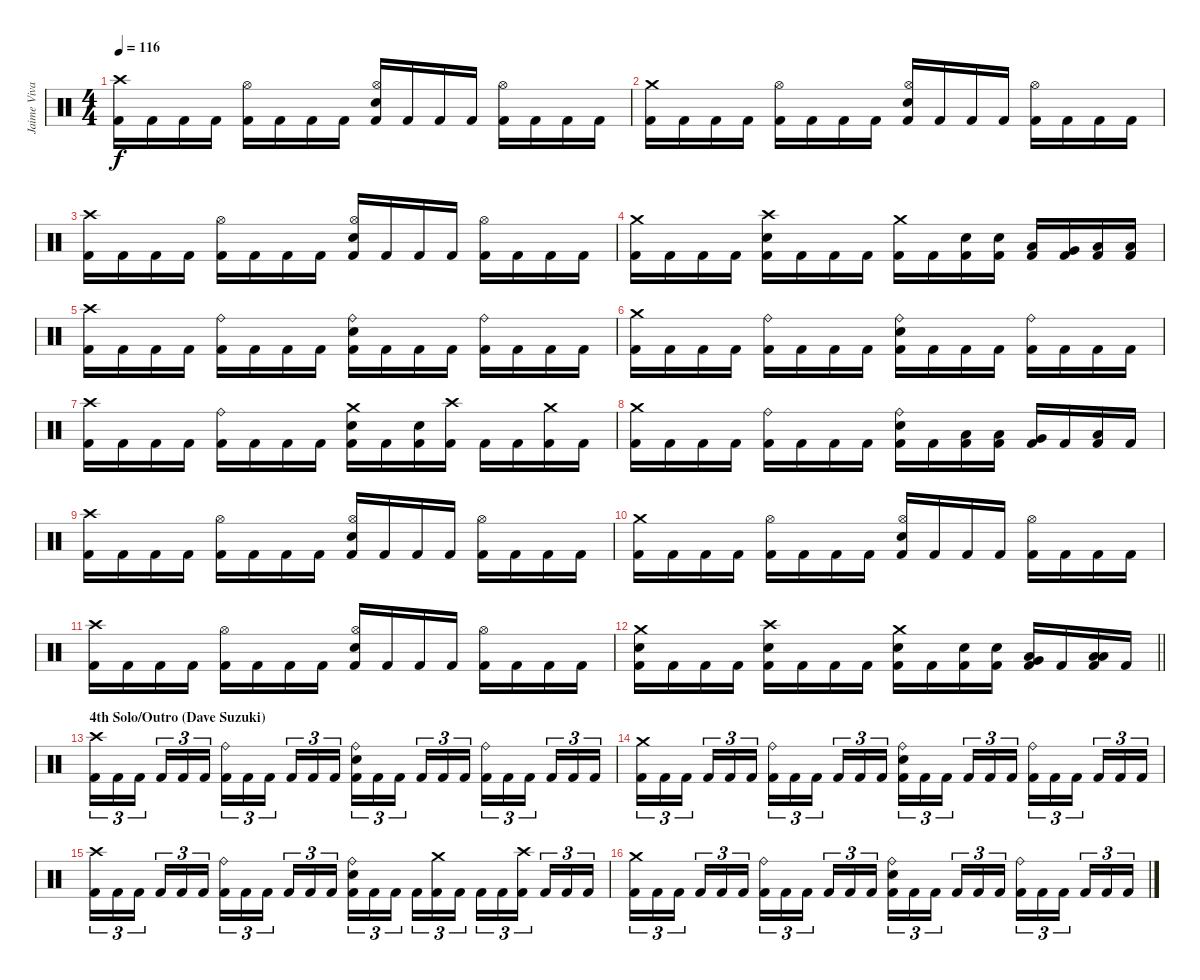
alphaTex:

\track ("Jaime Vivar" "Jaime Viva") {instrument percussion}
\staff {score}
\articulation defaults
\ts (4 4)
\tempo 116
\clef neutral
\ks c
("Crash high (hit)" "Kick (hit) 2").16{dy f} "Kick (hit) 2".16 "Kick (hit) 2".16 "Kick (hit) 2".16 ("Hi-Hat (open)" "Kick (hit) 2").16 "Kick (hit) 2".16 "Kick (hit) 2".16 "Kick (hit) 2".16 ("Hi-Hat (open)" "Snare (hit) 2" "Kick (hit) 2").16 "Kick (hit) 2".16 "Kick (hit) 2".16 "Kick (hit) 2".16 ("Hi-Hat (open)" "Kick (hit) 2").16 "Kick (hit) 2".16 "Kick (hit) 2".16 "Kick (hit) 2".16 |
("Crash medium (hit)" "Kick (hit) 2").16 "Kick (hit) 2".16 "Kick (hit) 2".16 "Kick (hit) 2".16 ("Hi-Hat (open)" "Kick (hit) 2").16 "Kick (hit) 2".16 "Kick (hit) 2".16 "Kick (hit) 2".16 ("Hi-Hat (open)" "Snare (hit) 2" "Kick (hit) 2").16 "Kick (hit) 2".16 "Kick (hit) 2".16 "Kick (hit) 2".16 ("Hi-Hat (open)" "Kick (hit) 2").16 "Kick (hit) 2".16 "Kick (hit) 2".16 "Kick (hit) 2".16 |
("Crash high (hit)" "Kick (hit) 2").16 "Kick (hit) 2".16 "Kick (hit) 2".16 "Kick (hit) 2".16 ("Hi-Hat (open)" "Kick (hit) 2").16 "Kick (hit) 2".16 "Kick (hit) 2".16 "Kick (hit) 2".16 ("Hi-Hat (open)" "Snare (hit) 2" "Kick (hit) 2").16 "Kick (hit) 2".16 "Kick (hit) 2".16 "Kick (hit) 2".16 ("Hi-Hat (open)" "Kick (hit) 2").16 "Kick (hit) 2".16 "Kick (hit) 2".16 "Kick (hit) 2".16 |
("Crash medium (hit)" "Kick (hit) 2").16 "Kick (hit) 2".16 "Kick (hit) 2".16 "Kick (hit) 2".16 ("Crash high (hit)" "Snare (hit) 2" "Kick (hit) 2").16 "Kick (hit) 2".16 "Kick (hit) 2".16 "Kick (hit) 2".16 ("Crash medium (hit)" "Kick (hit) 2").16 "Kick (hit) 2".16 ("Snare (hit) 2" "Kick (hit) 2").16 ("Snare (hit) 2" "Kick (hit) 2").16 ("Low Tom (hit)" "Kick (hit) 2").16 ("Very Low Tom (hit)" "Kick (hit) 2").16 ("Low Floor Tom (hit)" "Kick (hit) 2").16 ("Low Floor Tom (hit)" "Kick (hit) 2").16 |
("Crash high (hit)" "Kick (hit) 2").16 "Kick (hit) 2".16 "Kick (hit) 2".16 "Kick (hit) 2".16 ("Ride (bell)" "Kick (hit) 2").16 "Kick (hit) 2".16 "Kick (hit) 2".16 "Kick (hit) 2".16 ("Ride (bell)" "Snare (hit) 2" "Kick (hit) 2").16 "Kick (hit) 2".16 "Kick (hit) 2".16 "Kick (hit) 2".16 ("Ride (bell)" "Kick (hit) 2").16 "Kick (hit) 2".16 "Kick (hit) 2".16 "Kick (hit) 2".16 |
("Crash medium (hit)" "Kick (hit) 2").16 "Kick (hit) 2".16 "Kick (hit) 2".16 "Kick (hit) 2".16 ("Ride (bell)" "Kick (hit) 2").16 "Kick (hit) 2".16 "Kick (hit) 2".16 "Kick (hit) 2".16 ("Ride (bell)" "Snare (hit) 2" "Kick (hit) 2").16 "Kick (hit) 2".16 "Kick (hit) 2".16 "Kick (hit) 2".16 ("Ride (bell)" "Kick (hit) 2").16 "Kick (hit) 2".16 "Kick (hit) 2".16 "Kick (hit) 2".16 |
("Crash high (hit)" "Kick (hit) 2").16 "Kick (hit) 2".16 "Kick (hit) 2".16 "Kick (hit) 2".16 ("Ride (bell)" "Kick (hit) 2").16 "Kick (hit) 2".16 "Kick (hit) 2".16 "Kick (hit) 2".16 ("Crash medium (hit)" "Snare (hit) 2" "Kick (hit) 2").16 "Kick (hit) 2".16 ("Snare (hit) 2" "Kick (hit) 2").16 ("Crash high (hit)" "Kick (hit) 2").16 "Kick (hit) 2".16 "Kick (hit) 2".16 ("Crash medium (hit)" "Kick (hit) 2").16 "Kick (hit) 2".16 |
("Crash medium (hit)" "Kick (hit) 2").16 "Kick (hit) 2".16 "Kick (hit) 2".16 "Kick (hit) 2".16 ("Ride (bell)" "Kick (hit) 2").16 "Kick (hit) 2".16 "Kick (hit) 2".16 "Kick (hit) 2".16 ("Ride (bell)" "Snare (hit) 2" "Kick (hit) 2").16 "Kick (hit) 2".16 ("Low Tom (hit)" "Kick (hit) 2").16 ("Low Tom (hit)" "Kick (hit) 2").16 ("Very Low Tom (hit)" "Kick (hit) 2").16 "Kick (hit) 2".16 ("Low Floor Tom (hit)" "Kick (hit) 2").16 "Kick (hit) 2".16 |
("Crash high (hit)" "Kick (hit) 2").16 "Kick (hit) 2".16 "Kick (hit) 2".16 "Kick (hit) 2".16 ("Hi-Hat (open)" "Kick (hit) 2").16 "Kick (hit) 2".16 "Kick (hit) 2".16 "Kick (hit) 2".16 ("Hi-Hat (open)" "Snare (hit) 2" "Kick (hit) 2").16 "Kick (hit) 2".16 "Kick (hit) 2".16 "Kick (hit) 2".16 ("Hi-Hat (open)" "Kick (hit) 2").16 "Kick (hit) 2".16 "Kick (hit) 2".16 "Kick (hit) 2".16 |
("Crash medium (hit)" "Kick (hit) 2").16 "Kick (hit) 2".16 "Kick (hit) 2".16 "Kick (hit) 2".16 ("Hi-Hat (open)" "Kick (hit) 2").16 "Kick (hit) 2".16 "Kick (hit) 2".16 "Kick (hit) 2".16 ("Hi-Hat (open)" "Snare (hit) 2" "Kick (hit) 2").16 "Kick (hit) 2".16 "Kick (hit) 2".16 "Kick (hit) 2".16 ("Hi-Hat (open)" "Kick (hit) 2").16 "Kick (hit) 2".16 "Kick (hit) 2".16 "Kick (hit) 2".16 |
("Crash high (hit)" "Kick (hit) 2").16 "Kick (hit) 2".16 "Kick (hit) 2".16 "Kick (hit) 2".16 ("Hi-Hat (open)" "Kick (hit) 2").16 "Kick (hit) 2".16 "Kick (hit) 2".16 "Kick (hit) 2".16 ("Hi-Hat (open)" "Snare (hit) 2" "Kick (hit) 2").16 "Kick (hit) 2".16 "Kick (hit) 2".16 "Kick (hit) 2".16 ("Hi-Hat (open)" "Kick (hit) 2").16 "Kick (hit) 2".16 "Kick (hit) 2".16 "Kick (hit) 2".16 |
\barLineRight lightlight
("Crash medium (hit)" "Snare (hit) 2" "Kick (hit) 2").16 "Kick (hit) 2".16 "Kick (hit) 2".16 "Kick (hit) 2".16 ("Crash high (hit)" "Snare (hit) 2" "Kick (hit) 2").16 "Kick (hit) 2".16 "Kick (hit) 2".16 "Kick (hit) 2".16 ("Crash medium (hit)" "Snare (hit) 2" "Kick (hit) 2").16 "Kick (hit) 2".16 ("Snare (hit) 2" "Kick (hit) 2").16 ("Snare (hit) 2" "Kick (hit) 2").16 ("Low Tom (hit)" "Very Low Tom (hit)" "Kick (hit) 2").16 "Kick (hit) 2".16 ("Low Floor Tom (hit)" "Low Floor Tom (hit)" "Kick (hit) 2").16 "Kick (hit) 2".16 |
\section ("" "4th Solo/Outro (Dave Suzuki)")
("Crash high (hit)" "Kick (hit) 2").16{tu (3 2)} "Kick (hit) 2".16{tu (3 2)} "Kick (hit) 2".16{tu (3 2) beam splitsecondary} "Kick (hit) 2".16{tu (3 2)} "Kick (hit) 2".16{tu (3 2)} "Kick (hit) 2".16{tu (3 2)} ("Ride (bell)" "Kick (hit) 2").16{tu (3 2)} "Kick (hit) 2".16{tu (3 2)} "Kick (hit) 2".16{tu (3 2) beam splitsecondary} "Kick (hit) 2".16{tu (3 2)} "Kick (hit) 2".16{tu (3 2)} "Kick (hit) 2".16{tu (3 2)} ("Ride (bell)" "Snare (hit) 2" "Kick (hit) 2").16{tu (3 2)} "Kick (hit) 2".16{tu (3 2)} "Kick (hit) 2".16{tu (3 2) beam splitsecondary} "Kick (hit) 2".16{tu (3 2)} "Kick (hit) 2".16{tu (3 2)} "Kick (hit) 2".16{tu (3 2)} ("Ride (bell)" "Kick (hit) 2").16{tu (3 2)} "Kick (hit) 2".16{tu (3 2)} "Kick (hit) 2".16{tu (3 2) beam splitsecondary} "Kick (hit) 2".16{tu (3 2)} "Kick (hit) 2".16{tu (3 2)} "Kick (hit) 2".16{tu (3 2)} |
("Crash medium (hit)" "Kick (hit) 2").16{tu (3 2)} "Kick (hit) 2".16{tu (3 2)} "Kick (hit) 2".16{tu (3 2) beam splitsecondary} "Kick (hit) 2".16{tu (3 2)} "Kick (hit) 2".16{tu (3 2)} "Kick (hit) 2".16{tu (3 2)} ("Ride (bell)" "Kick (hit) 2").16{tu (3 2)} "Kick (hit) 2".16{tu (3 2)} "Kick (hit) 2".16{tu (3 2) beam splitsecondary} "Kick (hit) 2".16{tu (3 2)} "Kick (hit) 2".16{tu (3 2)} "Kick (hit) 2".16{tu (3 2)} ("Ride (bell)" "Snare (hit) 2" "Kick (hit) 2").16{tu (3 2)} "Kick (hit) 2".16{tu (3 2)} "Kick (hit) 2".16{tu (3 2) beam splitsecondary} "Kick (hit) 2".16{tu (3 2)} "Kick (hit) 2".16{tu (3 2)} "Kick (hit) 2".16{tu (3 2)} ("Ride (bell)" "Kick (hit) 2").16{tu (3 2)} "Kick (hit) 2".16{tu (3 2)} "Kick (hit) 2".16{tu (3 2) beam splitsecondary} "Kick (hit) 2".16{tu (3 2)} "Kick (hit) 2".16{tu (3 2)} "Kick (hit) 2".16{tu (3 2)} |
("Crash high (hit)" "Kick (hit) 2").16{tu (3 2)} "Kick (hit) 2".16{tu (3 2)} "Kick (hit) 2".16{tu (3 2) beam splitsecondary} "Kick (hit) 2".16{tu (3 2)} "Kick (hit) 2".16{tu (3 2)} "Kick (hit) 2".16{tu (3 2)} ("Ride (bell)" "Kick (hit) 2").16{tu (3 2)} "Kick (hit) 2".16{tu (3 2)} "Kick (hit) 2".16{tu (3 2) beam splitsecondary} "Kick (hit) 2".16{tu (3 2)} "Kick (hit) 2".16{tu (3 2)} "Kick (hit) 2".16{tu (3 2)} ("Ride (bell)" "Snare (hit) 2" "Kick (hit) 2").16{tu (3 2)} "Kick (hit) 2".16{tu (3 2)} "Kick (hit) 2".16{tu (3 2) beam splitsecondary} "Kick (hit) 2".16{tu (3 2)} ("Crash medium (hit)" "Kick (hit) 2").16{tu (3 2)} "Kick (hit) 2".16{tu (3 2)} "Kick (hit) 2".16{tu (3 2)} "Kick (hit) 2".16{tu (3 2)} ("Crash high (hit)" "Kick (hit) 2").16{tu (3 2) beam splitsecondary} "Kick (hit) 2".16{tu (3 2)} "Kick (hit) 2".16{tu (3 2)} "Kick (hit) 2".16{tu (3 2)} |
("Crash medium (hit)" "Kick (hit) 2").16{tu (3 2)} "Kick (hit) 2".16{tu (3 2)} "Kick (hit) 2".16{tu (3 2) beam splitsecondary} "Kick (hit) 2".16{tu (3 2)} "Kick (hit) 2".16{tu (3 2)} "Kick (hit) 2".16{tu (3 2)} ("Ride (bell)" "Kick (hit) 2").16{tu (3 2)} "Kick (hit) 2".16{tu (3 2)} "Kick (hit) 2".16{tu (3 2) beam splitsecondary} "Kick (hit) 2".16{tu (3 2)} "Kick (hit) 2".16{tu (3 2)} "Kick (hit) 2".16{tu (3 2)} ("Ride (bell)" "Snare (hit) 2" "Kick (hit) 2").16{tu (3 2)} "Kick (hit) 2".16{tu (3 2)} "Kick (hit) 2".16{tu (3 2) beam splitsecondary} "Kick (hit) 2".16{tu (3 2)} "Kick (hit) 2".16{tu (3 2)} "Kick (hit) 2".16{tu (3 2)} ("Ride (bell)" "Kick (hit) 2").16{tu (3 2)} "Kick (hit) 2".16{tu (3 2)} "Kick (hit) 2".16{tu (3 2) beam splitsecondary} "Kick (hit) 2".16{tu (3 2)} "Kick (hit) 2".16{tu (3 2)} "Kick (hit) 2".16{tu (3 2)}
